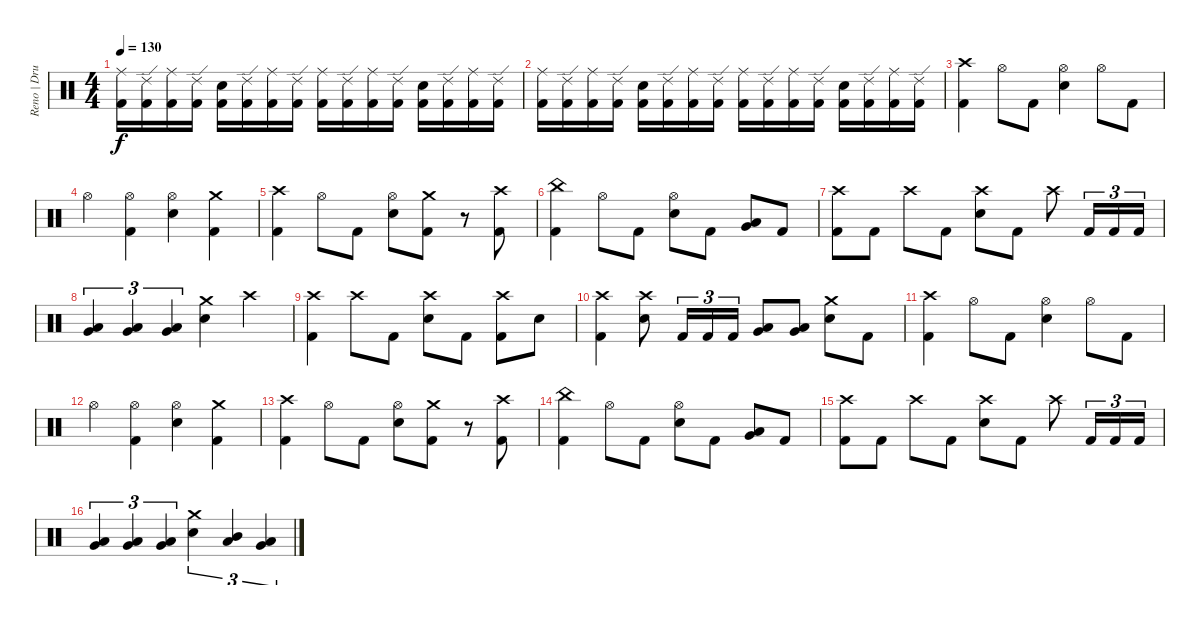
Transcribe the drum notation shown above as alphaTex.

\track ("Reno | Drums" "Reno | Dru") {instrument percussion}
\staff {score}
\articulation defaults
\ts (4 4)
\tempo 130
\clef neutral
\ks c
("Ride (middle)" "Kick (hit) 2").16{dy f} ("Ride (edge) 2" "Kick (hit) 2").16 ("Ride (middle)" "Kick (hit) 2").16 ("Ride (edge) 2" "Kick (hit) 2").16 ("Electric Snare (hit)" "Kick (hit) 2").16 ("Ride (edge) 2" "Kick (hit) 2").16 ("Ride (middle)" "Kick (hit) 2").16 ("Ride (edge) 2" "Kick (hit) 2").16 ("Ride (middle)" "Kick (hit) 2").16 ("Ride (edge) 2" "Kick (hit) 2").16 ("Ride (middle)" "Kick (hit) 2").16 ("Ride (edge) 2" "Kick (hit) 2").16 ("Electric Snare (hit)" "Kick (hit) 2").16 ("Ride (edge) 2" "Kick (hit) 2").16 ("Ride (middle)" "Kick (hit) 2").16 ("Ride (edge) 2" "Kick (hit) 2").16 |
("Ride (middle)" "Kick (hit) 2").16 ("Ride (edge) 2" "Kick (hit) 2").16 ("Ride (middle)" "Kick (hit) 2").16 ("Ride (edge) 2" "Kick (hit) 2").16 ("Electric Snare (hit)" "Kick (hit) 2").16 ("Ride (edge) 2" "Kick (hit) 2").16 ("Ride (middle)" "Kick (hit) 2").16 ("Ride (edge) 2" "Kick (hit) 2").16 ("Ride (middle)" "Kick (hit) 2").16 ("Ride (edge) 2" "Kick (hit) 2").16 ("Ride (middle)" "Kick (hit) 2").16 ("Ride (edge) 2" "Kick (hit) 2").16 ("Electric Snare (hit)" "Kick (hit) 2").16 ("Ride (edge) 2" "Kick (hit) 2").16 ("Ride (middle)" "Kick (hit) 2").16 ("Ride (edge) 2" "Kick (hit) 2").16 |
("Crash high (hit)" "Kick (hit) 2").4 "Hi-Hat (open)".8 "Kick (hit) 2".8 ("Hi-Hat (open)" "Electric Snare (hit)").4 "Hi-Hat (open)".8 "Kick (hit) 2".8 |
"Hi-Hat (open)".4 ("Hi-Hat (open)" "Kick (hit) 2").4 ("Hi-Hat (open)" "Electric Snare (hit)").4 ("Crash medium (hit)" "Kick (hit) 2").4 |
("Crash high (hit)" "Kick (hit) 2").4 "Hi-Hat (open)".8 "Kick (hit) 2".8 ("Hi-Hat (open)" "Electric Snare (hit)").8 ("Crash medium (hit)" "Kick (hit) 2").8 r.8 ("Crash high (hit)" "Kick (hit) 2").8 |
("China (hit)" "Kick (hit) 2").4 "Hi-Hat (open)".8 "Kick (hit) 2".8 ("Hi-Hat (open)" "Electric Snare (hit)").8 "Kick (hit) 2".8 ("Low Tom (hit)" "Very Low Tom (hit)").8 "Kick (hit) 2".8 |
("Crash high (hit)" "Kick (hit) 2").8 "Kick (hit) 2".8 "Crash high (hit)".8 "Kick (hit) 2".8 ("Crash high (hit)" "Electric Snare (hit)").8 "Kick (hit) 2".8 "Crash high (hit)".8 "Kick (hit) 2".16{tu (3 2)} "Kick (hit) 2".16{tu (3 2)} "Kick (hit) 2".16{tu (3 2)} |
("Low Tom (hit)" "Very Low Tom (hit)").4{tu (3 2)} ("Low Tom (hit)" "Very Low Tom (hit)").4{tu (3 2)} ("Low Tom (hit)" "Very Low Tom (hit)").4{tu (3 2)} ("Crash medium (hit)" "Electric Snare (hit)").4 "Crash high (hit)".4 |
("Crash high (hit)" "Kick (hit) 2").4 "Crash high (hit)".8 "Kick (hit) 2".8 ("Crash high (hit)" "Electric Snare (hit)").8 "Kick (hit) 2".8 ("Crash high (hit)" "Kick (hit) 2").8 "Electric Snare (hit)".8 |
("Crash high (hit)" "Kick (hit) 2").4 ("Crash high (hit)" "Electric Snare (hit)").8 "Kick (hit) 2".16{tu (3 2)} "Kick (hit) 2".16{tu (3 2)} "Kick (hit) 2".16{tu (3 2)} ("Low Tom (hit)" "Very Low Tom (hit)").8 ("Low Tom (hit)" "Very Low Tom (hit)").8 ("Crash medium (hit)" "Electric Snare (hit)").8 "Kick (hit) 2".8 |
("Crash high (hit)" "Kick (hit) 2").4 "Hi-Hat (open)".8 "Kick (hit) 2".8 ("Hi-Hat (open)" "Electric Snare (hit)").4 "Hi-Hat (open)".8 "Kick (hit) 2".8 |
"Hi-Hat (open)".4 ("Hi-Hat (open)" "Kick (hit) 2").4 ("Hi-Hat (open)" "Electric Snare (hit)").4 ("Crash medium (hit)" "Kick (hit) 2").4 |
("Crash high (hit)" "Kick (hit) 2").4 "Hi-Hat (open)".8 "Kick (hit) 2".8 ("Hi-Hat (open)" "Electric Snare (hit)").8 ("Crash medium (hit)" "Kick (hit) 2").8 r.8 ("Crash high (hit)" "Kick (hit) 2").8 |
("China (hit)" "Kick (hit) 2").4 "Hi-Hat (open)".8 "Kick (hit) 2".8 ("Hi-Hat (open)" "Electric Snare (hit)").8 "Kick (hit) 2".8 ("Low Tom (hit)" "Very Low Tom (hit)").8 "Kick (hit) 2".8 |
("Crash high (hit)" "Kick (hit) 2").8 "Kick (hit) 2".8 "Crash high (hit)".8 "Kick (hit) 2".8 ("Crash high (hit)" "Electric Snare (hit)").8 "Kick (hit) 2".8 "Crash high (hit)".8 "Kick (hit) 2".16{tu (3 2)} "Kick (hit) 2".16{tu (3 2)} "Kick (hit) 2".16{tu (3 2)} |
("Low Tom (hit)" "Very Low Tom (hit)").4{tu (3 2)} ("Low Tom (hit)" "Very Low Tom (hit)").4{tu (3 2)} ("Low Tom (hit)" "Very Low Tom (hit)").4{tu (3 2)} ("Crash medium (hit)" "Electric Snare (hit)").4{tu (3 2)} ("Mid Tom (hit)" "Low Tom (hit)").4{tu (3 2)} ("Low Tom (hit)" "Very Low Tom (hit)").4{tu (3 2)}
